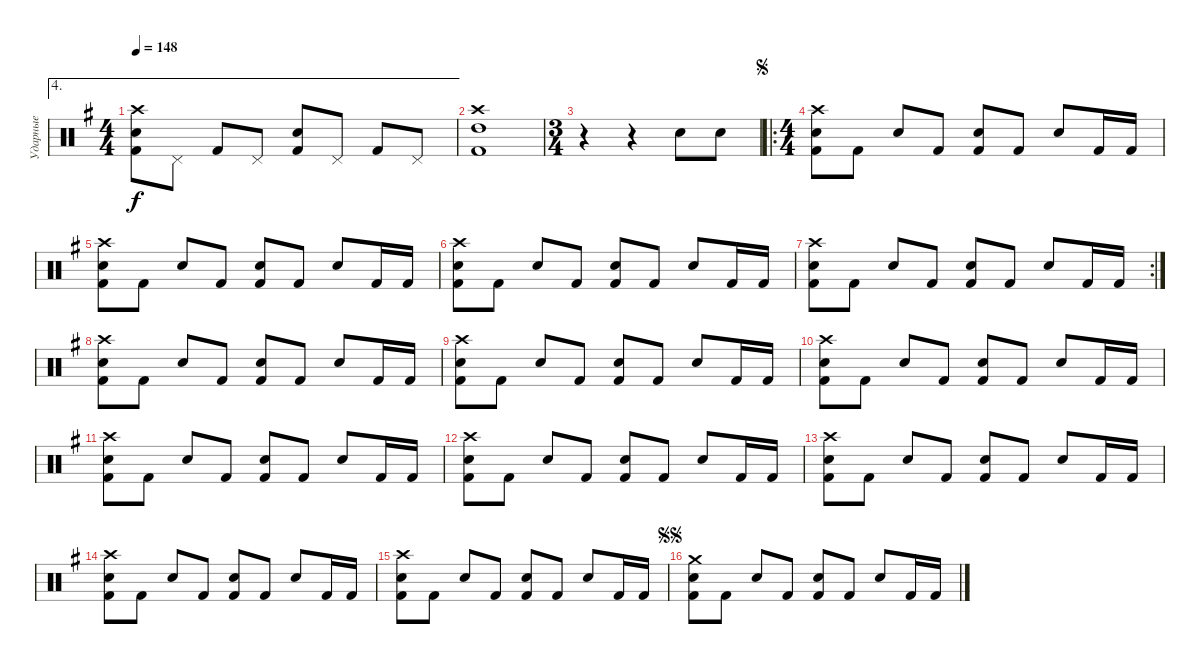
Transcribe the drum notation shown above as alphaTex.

\track ("Ударные" "Ударные") {instrument percussion}
\staff {score}
\articulation defaults
\ae 4
\ts (4 4)
\tempo 148
\clef neutral
\ks g
("Crash high (hit)" "Snare (hit) 2" "Kick (hit) 2").8{dy f} "Pedal Hi-Hat (hit)".8 "Kick (hit) 2".8 "Pedal Hi-Hat (hit)".8 ("Snare (hit) 2" "Kick (hit) 2").8 "Pedal Hi-Hat (hit)".8 "Kick (hit) 2".8 "Pedal Hi-Hat (hit)".8 |
("High Tom (hit)" "Crash high (hit)" "Kick (hit) 2").1 |
\ts (3 4)
r.4 r.4 "Snare (hit) 2".8 "Snare (hit) 2".8 |
\ro
\ts (4 4)
\jump segno
("Crash high (hit)" "Snare (hit) 2" "Kick (hit) 2").8 "Kick (hit) 2".8 "Snare (hit) 2".8 "Kick (hit) 2".8 ("Snare (hit) 2" "Kick (hit) 2").8 "Kick (hit) 2".8 "Snare (hit) 2".8 "Kick (hit) 2".16 "Kick (hit) 2".16 |
("Crash high (hit)" "Snare (hit) 2" "Kick (hit) 2").8 "Kick (hit) 2".8 "Snare (hit) 2".8 "Kick (hit) 2".8 ("Snare (hit) 2" "Kick (hit) 2").8 "Kick (hit) 2".8 "Snare (hit) 2".8 "Kick (hit) 2".16 "Kick (hit) 2".16 |
("Crash high (hit)" "Snare (hit) 2" "Kick (hit) 2").8 "Kick (hit) 2".8 "Snare (hit) 2".8 "Kick (hit) 2".8 ("Snare (hit) 2" "Kick (hit) 2").8 "Kick (hit) 2".8 "Snare (hit) 2".8 "Kick (hit) 2".16 "Kick (hit) 2".16 |
\rc 2
("Crash high (hit)" "Snare (hit) 2" "Kick (hit) 2").8 "Kick (hit) 2".8 "Snare (hit) 2".8 "Kick (hit) 2".8 ("Snare (hit) 2" "Kick (hit) 2").8 "Kick (hit) 2".8 "Snare (hit) 2".8 "Kick (hit) 2".16 "Kick (hit) 2".16 |
("Crash high (hit)" "Snare (hit) 2" "Kick (hit) 2").8 "Kick (hit) 2".8 "Snare (hit) 2".8 "Kick (hit) 2".8 ("Snare (hit) 2" "Kick (hit) 2").8 "Kick (hit) 2".8 "Snare (hit) 2".8 "Kick (hit) 2".16 "Kick (hit) 2".16 |
("Crash high (hit)" "Snare (hit) 2" "Kick (hit) 2").8 "Kick (hit) 2".8 "Snare (hit) 2".8 "Kick (hit) 2".8 ("Snare (hit) 2" "Kick (hit) 2").8 "Kick (hit) 2".8 "Snare (hit) 2".8 "Kick (hit) 2".16 "Kick (hit) 2".16 |
("Crash high (hit)" "Snare (hit) 2" "Kick (hit) 2").8 "Kick (hit) 2".8 "Snare (hit) 2".8 "Kick (hit) 2".8 ("Snare (hit) 2" "Kick (hit) 2").8 "Kick (hit) 2".8 "Snare (hit) 2".8 "Kick (hit) 2".16 "Kick (hit) 2".16 |
("Crash high (hit)" "Snare (hit) 2" "Kick (hit) 2").8 "Kick (hit) 2".8 "Snare (hit) 2".8 "Kick (hit) 2".8 ("Snare (hit) 2" "Kick (hit) 2").8 "Kick (hit) 2".8 "Snare (hit) 2".8 "Kick (hit) 2".16 "Kick (hit) 2".16 |
("Crash high (hit)" "Snare (hit) 2" "Kick (hit) 2").8 "Kick (hit) 2".8 "Snare (hit) 2".8 "Kick (hit) 2".8 ("Snare (hit) 2" "Kick (hit) 2").8 "Kick (hit) 2".8 "Snare (hit) 2".8 "Kick (hit) 2".16 "Kick (hit) 2".16 |
("Crash high (hit)" "Snare (hit) 2" "Kick (hit) 2").8 "Kick (hit) 2".8 "Snare (hit) 2".8 "Kick (hit) 2".8 ("Snare (hit) 2" "Kick (hit) 2").8 "Kick (hit) 2".8 "Snare (hit) 2".8 "Kick (hit) 2".16 "Kick (hit) 2".16 |
("Crash high (hit)" "Snare (hit) 2" "Kick (hit) 2").8 "Kick (hit) 2".8 "Snare (hit) 2".8 "Kick (hit) 2".8 ("Snare (hit) 2" "Kick (hit) 2").8 "Kick (hit) 2".8 "Snare (hit) 2".8 "Kick (hit) 2".16 "Kick (hit) 2".16 |
("Crash high (hit)" "Snare (hit) 2" "Kick (hit) 2").8 "Kick (hit) 2".8 "Snare (hit) 2".8 "Kick (hit) 2".8 ("Snare (hit) 2" "Kick (hit) 2").8 "Kick (hit) 2".8 "Snare (hit) 2".8 "Kick (hit) 2".16 "Kick (hit) 2".16 |
\jump segnosegno
("Crash medium (hit)" "Snare (hit) 2" "Kick (hit) 2").8 "Kick (hit) 2".8 "Snare (hit) 2".8 "Kick (hit) 2".8 ("Snare (hit) 2" "Kick (hit) 2").8 "Kick (hit) 2".8 "Snare (hit) 2".8 "Kick (hit) 2".16 "Kick (hit) 2".16
